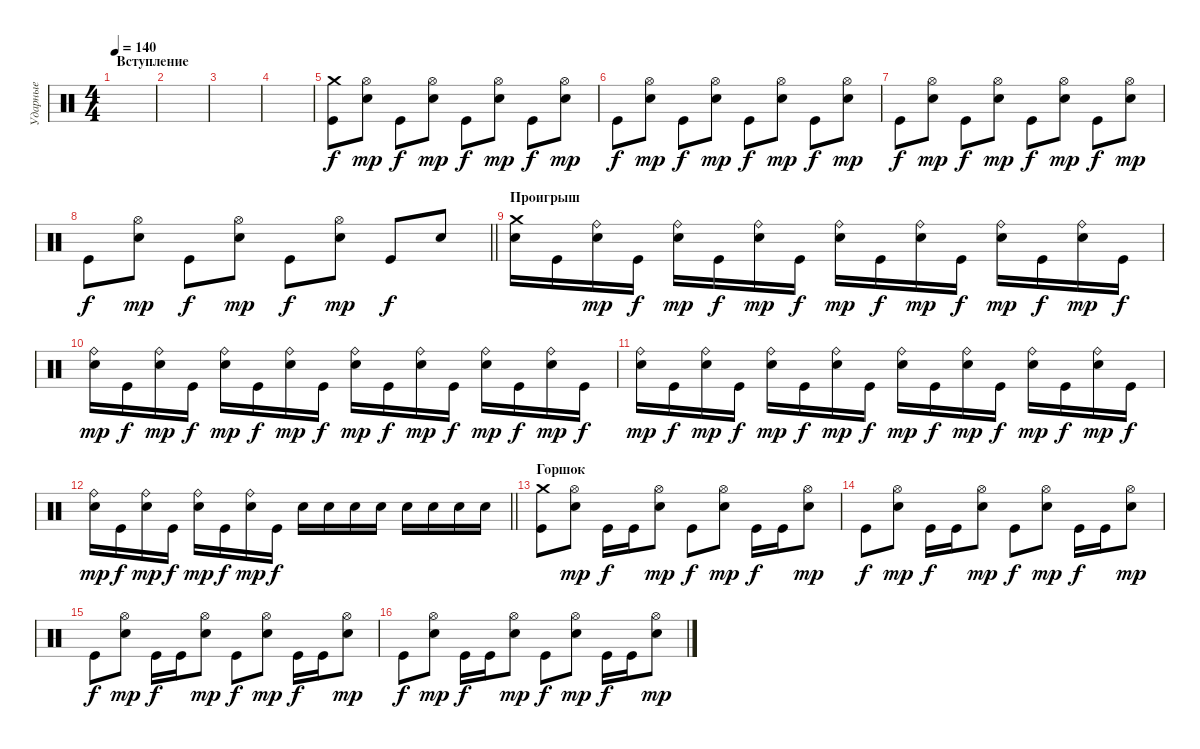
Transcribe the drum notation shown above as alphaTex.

\track ("Ударные" "Ударные") {instrument percussion}
\staff {score}
\articulation defaults
\ts (4 4)
\section ("" "Вступление")
\tempo 140
\clef neutral
\ks c
|
|
|
|
("Crash medium (hit)" "Kick (hit)").8 ("Hi-Hat (open)" "Electric Snare (hit)").8{dy mp} "Kick (hit)".8{dy f} ("Hi-Hat (open)" "Electric Snare (hit)").8{dy mp} "Kick (hit)".8{dy f} ("Hi-Hat (open)" "Electric Snare (hit)").8{dy mp} "Kick (hit)".8{dy f} ("Hi-Hat (open)" "Electric Snare (hit)").8{dy mp} |
"Kick (hit)".8{dy f} ("Hi-Hat (open)" "Electric Snare (hit)").8{dy mp} "Kick (hit)".8{dy f} ("Hi-Hat (open)" "Electric Snare (hit)").8{dy mp} "Kick (hit)".8{dy f} ("Hi-Hat (open)" "Electric Snare (hit)").8{dy mp} "Kick (hit)".8{dy f} ("Hi-Hat (open)" "Electric Snare (hit)").8{dy mp} |
"Kick (hit)".8{dy f} ("Hi-Hat (open)" "Electric Snare (hit)").8{dy mp} "Kick (hit)".8{dy f} ("Hi-Hat (open)" "Electric Snare (hit)").8{dy mp} "Kick (hit)".8{dy f} ("Hi-Hat (open)" "Electric Snare (hit)").8{dy mp} "Kick (hit)".8{dy f} ("Hi-Hat (open)" "Electric Snare (hit)").8{dy mp} |
\barLineRight lightlight "Kick (hit)".8{dy f}
("Hi-Hat (open)" "Electric Snare (hit)").8{dy mp} "Kick (hit)".8{dy f} ("Hi-Hat (open)" "Electric Snare (hit)").8{dy mp} "Kick (hit)".8{dy f} ("Hi-Hat (open)" "Electric Snare (hit)").8{dy mp} "Kick (hit)".8{dy f} "Electric Snare (hit)".8 |
\section ("" "Проигрыш")
("Crash medium (hit)" "Electric Snare (hit)").16 "Kick (hit)".16 ("Ride (bell)" "Electric Snare (hit)").16{dy mp} "Kick (hit)".16{dy f} ("Ride (bell)" "Electric Snare (hit)").16{dy mp} "Kick (hit)".16{dy f} ("Ride (bell)" "Electric Snare (hit)").16{dy mp} "Kick (hit)".16{dy f} ("Ride (bell)" "Electric Snare (hit)").16{dy mp} "Kick (hit)".16{dy f} ("Ride (bell)" "Electric Snare (hit)").16{dy mp} "Kick (hit)".16{dy f} ("Ride (bell)" "Electric Snare (hit)").16{dy mp} "Kick (hit)".16{dy f} ("Ride (bell)" "Electric Snare (hit)").16{dy mp} "Kick (hit)".16{dy f} |
("Ride (bell)" "Electric Snare (hit)").16{dy mp} "Kick (hit)".16{dy f} ("Ride (bell)" "Electric Snare (hit)").16{dy mp} "Kick (hit)".16{dy f} ("Ride (bell)" "Electric Snare (hit)").16{dy mp} "Kick (hit)".16{dy f} ("Ride (bell)" "Electric Snare (hit)").16{dy mp} "Kick (hit)".16{dy f} ("Ride (bell)" "Electric Snare (hit)").16{dy mp} "Kick (hit)".16{dy f} ("Ride (bell)" "Electric Snare (hit)").16{dy mp} "Kick (hit)".16{dy f} ("Ride (bell)" "Electric Snare (hit)").16{dy mp} "Kick (hit)".16{dy f} ("Ride (bell)" "Electric Snare (hit)").16{dy mp} "Kick (hit)".16{dy f} |
("Ride (bell)" "Electric Snare (hit)").16{dy mp} "Kick (hit)".16{dy f} ("Ride (bell)" "Electric Snare (hit)").16{dy mp} "Kick (hit)".16{dy f} ("Ride (bell)" "Electric Snare (hit)").16{dy mp} "Kick (hit)".16{dy f} ("Ride (bell)" "Electric Snare (hit)").16{dy mp} "Kick (hit)".16{dy f} ("Ride (bell)" "Electric Snare (hit)").16{dy mp} "Kick (hit)".16{dy f} ("Ride (bell)" "Electric Snare (hit)").16{dy mp} "Kick (hit)".16{dy f} ("Ride (bell)" "Electric Snare (hit)").16{dy mp} "Kick (hit)".16{dy f} ("Ride (bell)" "Electric Snare (hit)").16{dy mp} "Kick (hit)".16{dy f} |
\barLineRight lightlight
("Ride (bell)" "Electric Snare (hit)").16{dy mp} "Kick (hit)".16{dy f} ("Ride (bell)" "Electric Snare (hit)").16{dy mp} "Kick (hit)".16{dy f} ("Ride (bell)" "Electric Snare (hit)").16{dy mp} "Kick (hit)".16{dy f} ("Ride (bell)" "Electric Snare (hit)").16{dy mp} "Kick (hit)".16{dy f} "Electric Snare (hit)".16 "Electric Snare (hit)".16 "Electric Snare (hit)".16 "Electric Snare (hit)".16 "Electric Snare (hit)".16 "Electric Snare (hit)".16 "Electric Snare (hit)".16 "Electric Snare (hit)".16 |
\section ("" "Горшок")
("Crash medium (hit)" "Kick (hit)").8 ("Hi-Hat (open)" "Electric Snare (hit)").8{dy mp} "Kick (hit)".16{dy f} "Kick (hit)".16 ("Hi-Hat (open)" "Electric Snare (hit)").8{dy mp} "Kick (hit)".8{dy f} ("Hi-Hat (open)" "Electric Snare (hit)").8{dy mp} "Kick (hit)".16{dy f} "Kick (hit)".16 ("Hi-Hat (open)" "Electric Snare (hit)").8{dy mp} |
"Kick (hit)".8{dy f} ("Hi-Hat (open)" "Electric Snare (hit)").8{dy mp} "Kick (hit)".16{dy f} "Kick (hit)".16 ("Hi-Hat (open)" "Electric Snare (hit)").8{dy mp} "Kick (hit)".8{dy f} ("Hi-Hat (open)" "Electric Snare (hit)").8{dy mp} "Kick (hit)".16{dy f} "Kick (hit)".16 ("Hi-Hat (open)" "Electric Snare (hit)").8{dy mp} |
"Kick (hit)".8{dy f} ("Hi-Hat (open)" "Electric Snare (hit)").8{dy mp} "Kick (hit)".16{dy f} "Kick (hit)".16 ("Hi-Hat (open)" "Electric Snare (hit)").8{dy mp} "Kick (hit)".8{dy f} ("Hi-Hat (open)" "Electric Snare (hit)").8{dy mp} "Kick (hit)".16{dy f} "Kick (hit)".16 ("Hi-Hat (open)" "Electric Snare (hit)").8{dy mp} |
"Kick (hit)".8{dy f} ("Hi-Hat (open)" "Electric Snare (hit)").8{dy mp} "Kick (hit)".16{dy f} "Kick (hit)".16 ("Hi-Hat (open)" "Electric Snare (hit)").8{dy mp} "Kick (hit)".8{dy f} ("Hi-Hat (open)" "Electric Snare (hit)").8{dy mp} "Kick (hit)".16{dy f} "Kick (hit)".16 ("Hi-Hat (open)" "Electric Snare (hit)").8{dy mp}
